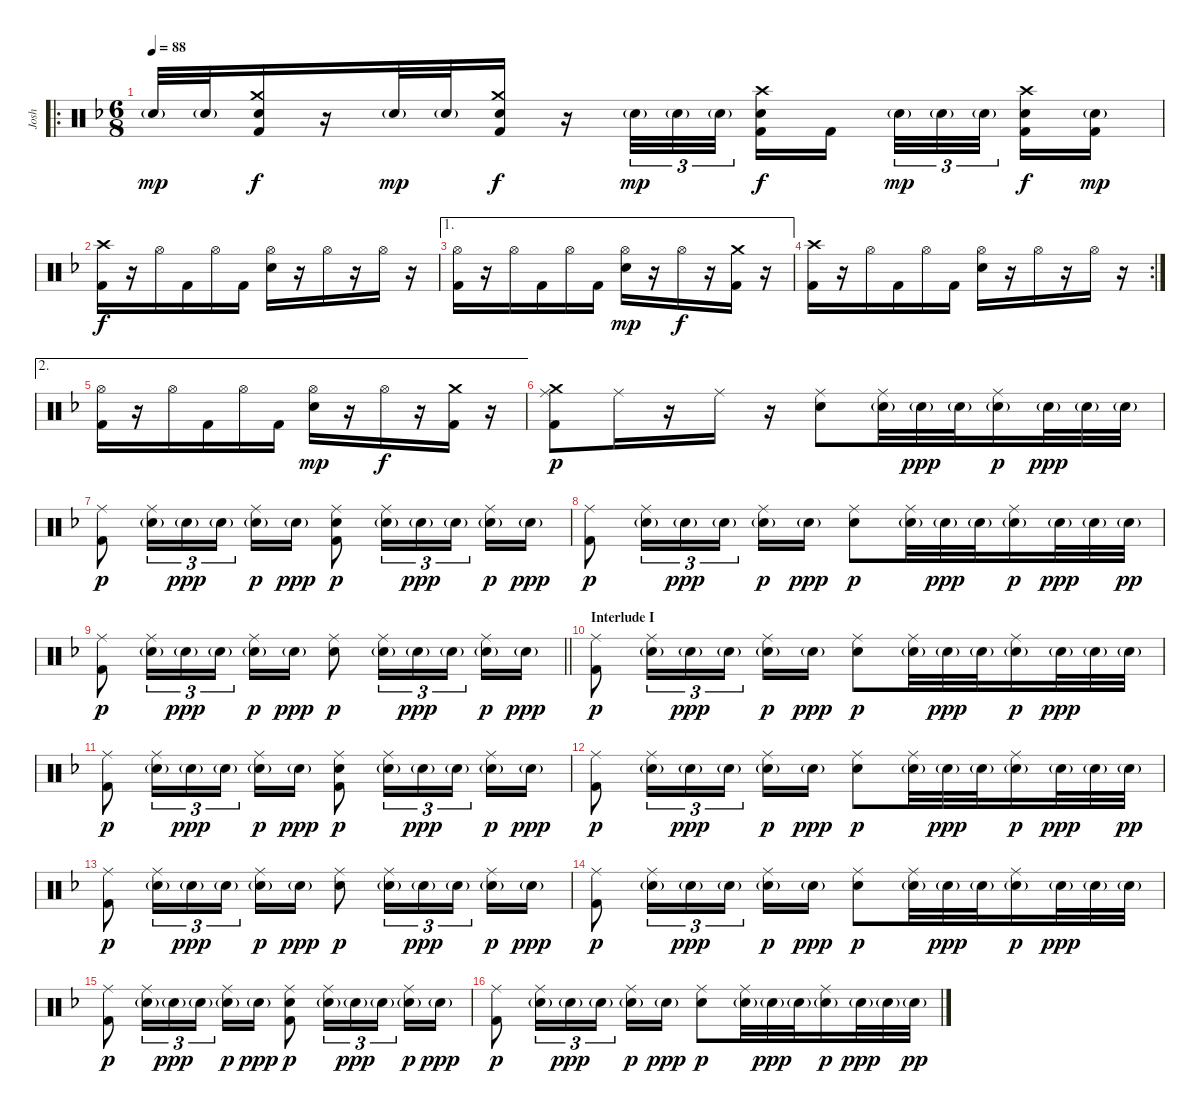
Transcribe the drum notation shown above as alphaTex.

\track ("Josh" "Josh") {instrument percussion}
\staff {score}
\articulation defaults
\ro
\ts (6 8)
\tempo 88
\clef neutral
\ks f "Snare (hit) 2"{g}.32{dy mp} "Snare (hit) 2"{g}.32
("Crash medium (hit)" "Snare (hit) 2" "Kick (hit) 2").16{dy f} r.16 "Snare (hit) 2"{g}.32{dy mp} "Snare (hit) 2"{g}.32 ("Crash medium (hit)" "Snare (hit) 2" "Kick (hit) 2").16{dy f} r.16 "Snare (hit) 2"{g}.32{tu (3 2) dy mp} "Snare (hit) 2"{g}.32{tu (3 2)} "Snare (hit) 2"{g}.32{tu (3 2) beam splitsecondary} ("Crash high (hit)" "Snare (hit) 2" "Kick (hit) 2").16{dy f} "Kick (hit) 2".16{beam splitsecondary} "Snare (hit) 2"{g}.32{tu (3 2) dy mp} "Snare (hit) 2"{g}.32{tu (3 2)} "Snare (hit) 2"{g}.32{tu (3 2) beam splitsecondary} ("Crash high (hit)" "Snare (hit) 2" "Kick (hit) 2").16{dy f} ("Snare (hit) 2"{g} "Kick (hit) 2").16{dy mp} |
("Crash high (hit)" "Kick (hit) 2").16{dy f} r.16 "Hi-Hat (open)".16 "Kick (hit) 2".16 "Hi-Hat (open)".16 "Kick (hit) 2".16 ("Hi-Hat (open)" "Snare (hit) 2").16 r.16 "Hi-Hat (open)".16 r.16 "Hi-Hat (open)".16 r.16 |
\ae 1
("Hi-Hat (open)" "Kick (hit) 2").16 r.16 "Hi-Hat (open)".16 "Kick (hit) 2".16 "Hi-Hat (open)".16 "Kick (hit) 2".16 ("Hi-Hat (open)" "Snare (hit) 2").16{dy mp} r.16 "Hi-Hat (open)".16{dy f} r.16 ("Crash medium (hit)" "Kick (hit) 2").16 r.16 |
\rc 2
("Crash high (hit)" "Kick (hit) 2").16 r.16 "Hi-Hat (open)".16 "Kick (hit) 2".16 "Hi-Hat (open)".16 "Kick (hit) 2".16 ("Hi-Hat (open)" "Snare (hit) 2").16 r.16 "Hi-Hat (open)".16 r.16 "Hi-Hat (open)".16 r.16 |
\ae 2
("Hi-Hat (open)" "Kick (hit) 2").16 r.16 "Hi-Hat (open)".16 "Kick (hit) 2".16 "Hi-Hat (open)".16 "Kick (hit) 2".16 ("Hi-Hat (open)" "Snare (hit) 2").16{dy mp} r.16 "Hi-Hat (open)".16{dy f} r.16 ("Crash medium (hit)" "Kick (hit) 2").16 r.16 |
("Crash medium (hit)" "Kick (hit) 2" "Ride (middle)").8{dy p} "Ride (middle)".16 r.16 "Ride (middle)".16 r.16 ("Snare (hit) 2" "Ride (middle)").8 ("Snare (hit) 2"{g} "Ride (middle)").32 "Snare (hit) 2"{g}.32{dy ppp} "Snare (hit) 2"{g}.32 ("Snare (hit) 2"{g} "Ride (middle)").16{dy p} "Snare (hit) 2"{g}.32{dy ppp} "Snare (hit) 2"{g}.32 "Snare (hit) 2"{g}.32 |
("Kick (hit) 2" "Ride (middle)").8{dy p} ("Snare (hit) 2"{g} "Ride (middle)").16{tu (3 2)} "Snare (hit) 2"{g}.16{tu (3 2) dy ppp} "Snare (hit) 2"{g}.16{tu (3 2) beam splitsecondary} ("Snare (hit) 2"{g} "Ride (middle)").16{dy p} "Snare (hit) 2"{g}.16{dy ppp} ("Snare (hit) 2" "Kick (hit) 2" "Ride (middle)").8{dy p} ("Snare (hit) 2"{g} "Ride (middle)").16{tu (3 2)} "Snare (hit) 2"{g}.16{tu (3 2) dy ppp} "Snare (hit) 2"{g}.16{tu (3 2) beam splitsecondary} ("Snare (hit) 2"{g} "Ride (middle)").16{dy p} "Snare (hit) 2"{g}.16{dy ppp} |
("Kick (hit) 2" "Ride (middle)").8{dy p} ("Snare (hit) 2"{g} "Ride (middle)").16{tu (3 2)} "Snare (hit) 2"{g}.16{tu (3 2) dy ppp} "Snare (hit) 2"{g}.16{tu (3 2) beam splitsecondary} ("Snare (hit) 2"{g} "Ride (middle)").16{dy p} "Snare (hit) 2"{g}.16{dy ppp} ("Snare (hit) 2" "Ride (middle)").8{dy p} ("Snare (hit) 2"{g} "Ride (middle)").32 "Snare (hit) 2"{g}.32{dy ppp} "Snare (hit) 2"{g}.32 ("Snare (hit) 2"{g} "Ride (middle)").16{dy p} "Snare (hit) 2"{g}.32{dy ppp} "Snare (hit) 2"{g}.32 "Snare (hit) 2"{g}.32{dy pp} |
\barLineRight lightlight
("Kick (hit) 2" "Ride (middle)").8{dy p} ("Snare (hit) 2"{g} "Ride (middle)").16{tu (3 2)} "Snare (hit) 2"{g}.16{tu (3 2) dy ppp} "Snare (hit) 2"{g}.16{tu (3 2) beam splitsecondary} ("Snare (hit) 2"{g} "Ride (middle)").16{dy p} "Snare (hit) 2"{g}.16{dy ppp} ("Snare (hit) 2" "Ride (middle)").8{dy p} ("Snare (hit) 2"{g} "Ride (middle)").16{tu (3 2)} "Snare (hit) 2"{g}.16{tu (3 2) dy ppp} "Snare (hit) 2"{g}.16{tu (3 2) beam splitsecondary} ("Snare (hit) 2"{g} "Ride (middle)").16{dy p} "Snare (hit) 2"{g}.16{dy ppp} |
\section ("" "Interlude I")
("Kick (hit) 2" "Ride (middle)").8{dy p volume 8} ("Snare (hit) 2"{g} "Ride (middle)").16{tu (3 2)} "Snare (hit) 2"{g}.16{tu (3 2) dy ppp} "Snare (hit) 2"{g}.16{tu (3 2) beam splitsecondary} ("Snare (hit) 2"{g} "Ride (middle)").16{dy p} "Snare (hit) 2"{g}.16{dy ppp} ("Snare (hit) 2" "Ride (middle)").8{dy p} ("Snare (hit) 2"{g} "Ride (middle)").32 "Snare (hit) 2"{g}.32{dy ppp} "Snare (hit) 2"{g}.32 ("Snare (hit) 2"{g} "Ride (middle)").16{dy p} "Snare (hit) 2"{g}.32{dy ppp} "Snare (hit) 2"{g}.32 "Snare (hit) 2"{g}.32 |
("Kick (hit) 2" "Ride (middle)").8{dy p} ("Snare (hit) 2"{g} "Ride (middle)").16{tu (3 2)} "Snare (hit) 2"{g}.16{tu (3 2) dy ppp} "Snare (hit) 2"{g}.16{tu (3 2) beam splitsecondary} ("Snare (hit) 2"{g} "Ride (middle)").16{dy p} "Snare (hit) 2"{g}.16{dy ppp} ("Snare (hit) 2" "Kick (hit) 2" "Ride (middle)").8{dy p} ("Snare (hit) 2"{g} "Ride (middle)").16{tu (3 2)} "Snare (hit) 2"{g}.16{tu (3 2) dy ppp} "Snare (hit) 2"{g}.16{tu (3 2) beam splitsecondary} ("Snare (hit) 2"{g} "Ride (middle)").16{dy p} "Snare (hit) 2"{g}.16{dy ppp} |
("Kick (hit) 2" "Ride (middle)").8{dy p} ("Snare (hit) 2"{g} "Ride (middle)").16{tu (3 2)} "Snare (hit) 2"{g}.16{tu (3 2) dy ppp} "Snare (hit) 2"{g}.16{tu (3 2) beam splitsecondary} ("Snare (hit) 2"{g} "Ride (middle)").16{dy p} "Snare (hit) 2"{g}.16{dy ppp} ("Snare (hit) 2" "Ride (middle)").8{dy p} ("Snare (hit) 2"{g} "Ride (middle)").32 "Snare (hit) 2"{g}.32{dy ppp} "Snare (hit) 2"{g}.32 ("Snare (hit) 2"{g} "Ride (middle)").16{dy p} "Snare (hit) 2"{g}.32{dy ppp} "Snare (hit) 2"{g}.32 "Snare (hit) 2"{g}.32{dy pp} |
("Kick (hit) 2" "Ride (middle)").8{dy p} ("Snare (hit) 2"{g} "Ride (middle)").16{tu (3 2)} "Snare (hit) 2"{g}.16{tu (3 2) dy ppp} "Snare (hit) 2"{g}.16{tu (3 2) beam splitsecondary} ("Snare (hit) 2"{g} "Ride (middle)").16{dy p} "Snare (hit) 2"{g}.16{dy ppp} ("Snare (hit) 2" "Ride (middle)").8{dy p} ("Snare (hit) 2"{g} "Ride (middle)").16{tu (3 2)} "Snare (hit) 2"{g}.16{tu (3 2) dy ppp} "Snare (hit) 2"{g}.16{tu (3 2) beam splitsecondary} ("Snare (hit) 2"{g} "Ride (middle)").16{dy p} "Snare (hit) 2"{g}.16{dy ppp} |
("Kick (hit) 2" "Ride (middle)").8{dy p volume 8} ("Snare (hit) 2"{g} "Ride (middle)").16{tu (3 2)} "Snare (hit) 2"{g}.16{tu (3 2) dy ppp} "Snare (hit) 2"{g}.16{tu (3 2) beam splitsecondary} ("Snare (hit) 2"{g} "Ride (middle)").16{dy p} "Snare (hit) 2"{g}.16{dy ppp} ("Snare (hit) 2" "Ride (middle)").8{dy p} ("Snare (hit) 2"{g} "Ride (middle)").32 "Snare (hit) 2"{g}.32{dy ppp} "Snare (hit) 2"{g}.32 ("Snare (hit) 2"{g} "Ride (middle)").16{dy p} "Snare (hit) 2"{g}.32{dy ppp} "Snare (hit) 2"{g}.32 "Snare (hit) 2"{g}.32 |
("Kick (hit) 2" "Ride (middle)").8{dy p} ("Snare (hit) 2"{g} "Ride (middle)").16{tu (3 2)} "Snare (hit) 2"{g}.16{tu (3 2) dy ppp} "Snare (hit) 2"{g}.16{tu (3 2) beam splitsecondary} ("Snare (hit) 2"{g} "Ride (middle)").16{dy p} "Snare (hit) 2"{g}.16{dy ppp} ("Snare (hit) 2" "Kick (hit) 2" "Ride (middle)").8{dy p} ("Snare (hit) 2"{g} "Ride (middle)").16{tu (3 2)} "Snare (hit) 2"{g}.16{tu (3 2) dy ppp} "Snare (hit) 2"{g}.16{tu (3 2) beam splitsecondary} ("Snare (hit) 2"{g} "Ride (middle)").16{dy p} "Snare (hit) 2"{g}.16{dy ppp} |
("Kick (hit) 2" "Ride (middle)").8{dy p} ("Snare (hit) 2"{g} "Ride (middle)").16{tu (3 2)} "Snare (hit) 2"{g}.16{tu (3 2) dy ppp} "Snare (hit) 2"{g}.16{tu (3 2) beam splitsecondary} ("Snare (hit) 2"{g} "Ride (middle)").16{dy p} "Snare (hit) 2"{g}.16{dy ppp} ("Snare (hit) 2" "Ride (middle)").8{dy p} ("Snare (hit) 2"{g} "Ride (middle)").32 "Snare (hit) 2"{g}.32{dy ppp} "Snare (hit) 2"{g}.32 ("Snare (hit) 2"{g} "Ride (middle)").16{dy p} "Snare (hit) 2"{g}.32{dy ppp} "Snare (hit) 2"{g}.32 "Snare (hit) 2"{g}.32{dy pp}
